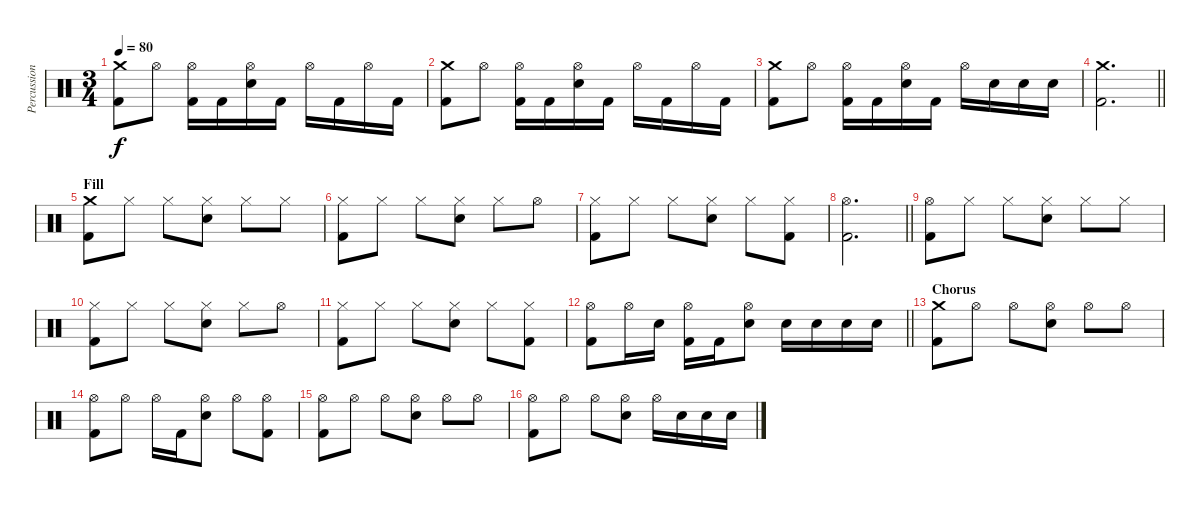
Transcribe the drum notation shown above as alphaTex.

\track ("Percussion" "Percussion") {instrument percussion}
\staff {score}
\articulation defaults
\ts (3 4)
\tempo 80
\clef neutral
\ks c
("Crash medium (hit)" "Kick (hit) 2").8{dy f} "Hi-Hat (open)".8 ("Hi-Hat (open)" "Kick (hit) 2").16 "Kick (hit) 2".16 ("Hi-Hat (open)" "Snare (hit) 2").16 "Kick (hit) 2".16 "Hi-Hat (open)".16 "Kick (hit) 2".16 "Hi-Hat (open)".16 "Kick (hit) 2".16 |
("Crash medium (hit)" "Kick (hit) 2").8 "Hi-Hat (open)".8 ("Hi-Hat (open)" "Kick (hit) 2").16 "Kick (hit) 2".16 ("Hi-Hat (open)" "Snare (hit) 2").16 "Kick (hit) 2".16 "Hi-Hat (open)".16 "Kick (hit) 2".16 "Hi-Hat (open)".16 "Kick (hit) 2".16 |
("Crash medium (hit)" "Kick (hit) 2").8 "Hi-Hat (open)".8 ("Hi-Hat (open)" "Kick (hit) 2").16 "Kick (hit) 2".16 ("Hi-Hat (open)" "Snare (hit) 2").16 "Kick (hit) 2".16 "Hi-Hat (open)".16 "Snare (hit) 2".16 "Snare (hit) 2".16 "Snare (hit) 2".16 |
\barLineRight lightlight
("Crash medium (hit)" "Kick (hit) 2").2{d} |
\section ("" "Fill")
("Crash medium (hit)" "Kick (hit) 2").8 "Hi-Hat (closed)".8 "Hi-Hat (closed)".8 ("Hi-Hat (closed)" "Snare (hit) 2").8 "Hi-Hat (closed)".8 "Hi-Hat (closed)".8 |
("Hi-Hat (closed)" "Kick (hit) 2").8 "Hi-Hat (closed)".8 "Hi-Hat (closed)".8 ("Hi-Hat (closed)" "Snare (hit) 2").8 "Hi-Hat (closed)".8 "Hi-Hat (open)".8 |
("Hi-Hat (closed)" "Kick (hit) 2").8 "Hi-Hat (closed)".8 "Hi-Hat (closed)".8 ("Hi-Hat (closed)" "Snare (hit) 2").8 "Hi-Hat (closed)".8 ("Hi-Hat (closed)" "Kick (hit) 2").8 |
\barLineRight lightlight
("Hi-Hat (open)" "Kick (hit) 2").2{d} |
("Hi-Hat (open)" "Kick (hit) 2").8 "Hi-Hat (closed)".8 "Hi-Hat (closed)".8 ("Hi-Hat (closed)" "Snare (hit) 2").8 "Hi-Hat (closed)".8 "Hi-Hat (closed)".8 |
("Hi-Hat (closed)" "Kick (hit) 2").8 "Hi-Hat (closed)".8 "Hi-Hat (closed)".8 ("Hi-Hat (closed)" "Snare (hit) 2").8 "Hi-Hat (closed)".8 "Hi-Hat (open)".8 |
("Hi-Hat (closed)" "Kick (hit) 2").8 "Hi-Hat (closed)".8 "Hi-Hat (closed)".8 ("Hi-Hat (closed)" "Snare (hit) 2").8 "Hi-Hat (closed)".8 ("Hi-Hat (closed)" "Kick (hit) 2").8 |
\barLineRight lightlight
("Hi-Hat (open)" "Kick (hit) 2").8 "Hi-Hat (open)".16 "Snare (hit) 2".16 ("Hi-Hat (open)" "Kick (hit) 2").16 "Kick (hit) 2".16 ("Hi-Hat (open)" "Snare (hit) 2").8 "Snare (hit) 2".16 "Snare (hit) 2".16 "Snare (hit) 2".16 "Snare (hit) 2".16 |
\section ("" "Chorus")
("Crash medium (hit)" "Kick (hit) 2").8 "Hi-Hat (open)".8 "Hi-Hat (open)".8 ("Hi-Hat (open)" "Snare (hit) 2").8 "Hi-Hat (open)".8 "Hi-Hat (open)".8 |
("Hi-Hat (open)" "Kick (hit) 2").8 "Hi-Hat (open)".8 "Hi-Hat (open)".16 "Kick (hit) 2".16 ("Hi-Hat (open)" "Snare (hit) 2").8 "Hi-Hat (open)".8 ("Hi-Hat (open)" "Kick (hit) 2").8 |
("Hi-Hat (open)" "Kick (hit) 2").8 "Hi-Hat (open)".8 "Hi-Hat (open)".8 ("Hi-Hat (open)" "Snare (hit) 2").8 "Hi-Hat (open)".8 "Hi-Hat (open)".8 |
("Hi-Hat (open)" "Kick (hit) 2").8 "Hi-Hat (open)".8 "Hi-Hat (open)".8 ("Hi-Hat (open)" "Snare (hit) 2").8 "Hi-Hat (open)".16 "Snare (hit) 2".16 "Snare (hit) 2".16 "Snare (hit) 2".16
